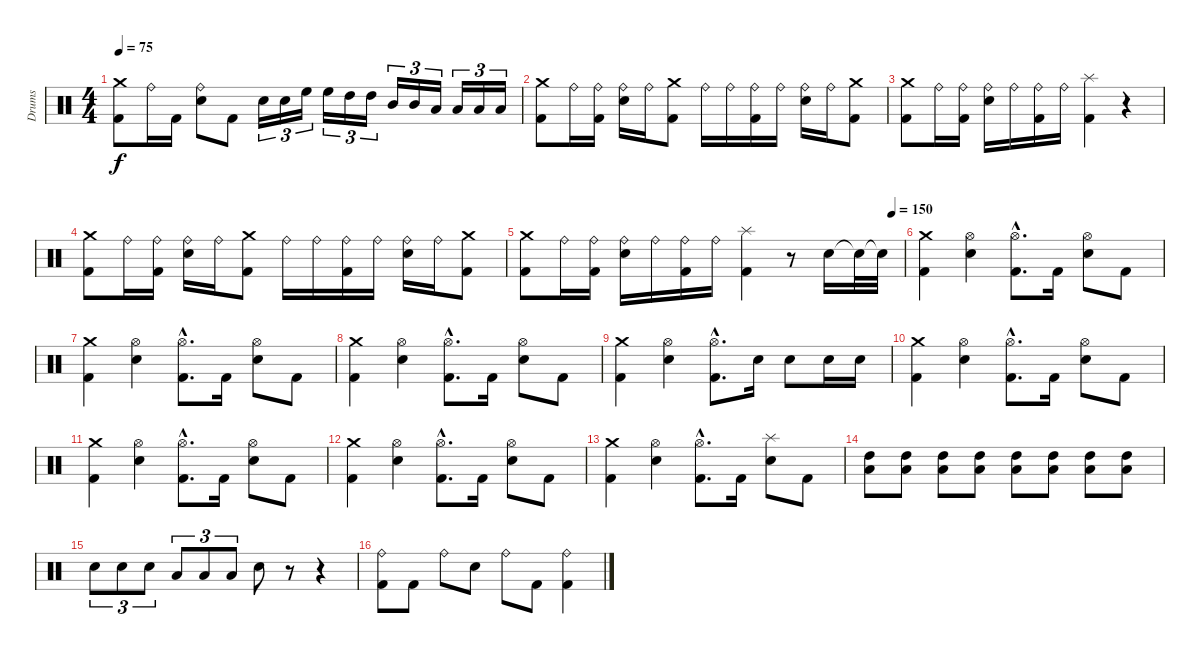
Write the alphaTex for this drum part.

\track ("Drums" "Drums") {instrument percussion}
\staff {score}
\articulation defaults
\ts (4 4)
\tempo 75
\clef neutral
\ks c
("Crash medium (hit)" "Kick (hit) 2").8{dy f} "Ride (bell)".16 "Kick (hit) 2".16 ("Ride (bell)" "Electric Snare (hit)").8 "Kick (hit) 2".8 "Electric Snare (hit)".16{tu (3 2)} "Electric Snare (hit)".16{tu (3 2)} "High Floor Tom (hit)".16{tu (3 2)} "High Floor Tom (hit)".16{tu (3 2)} "High Tom (hit)".16{tu (3 2)} "High Tom (hit)".16{tu (3 2)} "Mid Tom (hit)".16{tu (3 2)} "Mid Tom (hit)".16{tu (3 2)} "Low Tom (hit)".16{tu (3 2)} "Low Tom (hit)".16{tu (3 2)} "Low Floor Tom (hit)".16{tu (3 2)} "Low Floor Tom (hit)".16{tu (3 2)} |
("Crash medium (hit)" "Kick (hit) 2").8 "Ride (bell)".16 ("Ride (bell)" "Kick (hit) 2").16 ("Ride (bell)" "Electric Snare (hit)").16 "Ride (bell)".16 ("Crash medium (hit)" "Kick (hit) 2").8 "Ride (bell)".16 "Ride (bell)".16 ("Ride (bell)" "Kick (hit) 2").16 "Ride (bell)".16 ("Ride (bell)" "Electric Snare (hit)").16 "Ride (bell)".16 ("Crash medium (hit)" "Kick (hit) 2").8 |
("Crash medium (hit)" "Kick (hit) 2").8 "Ride (bell)".16 ("Ride (bell)" "Kick (hit) 2").16 ("Ride (bell)" "Electric Snare (hit)").16 "Ride (bell)".16 ("Ride (bell)" "Kick (hit) 2").16 "Ride (bell)".16 ("Splash (hit)" "Kick (hit) 2").4 r.4 |
("Crash medium (hit)" "Kick (hit) 2").8 "Ride (bell)".16 ("Ride (bell)" "Kick (hit) 2").16 ("Ride (bell)" "Electric Snare (hit)").16 "Ride (bell)".16 ("Crash medium (hit)" "Kick (hit) 2").8 "Ride (bell)".16 "Ride (bell)".16 ("Ride (bell)" "Kick (hit) 2").16 "Ride (bell)".16 ("Ride (bell)" "Electric Snare (hit)").16 "Ride (bell)".16 ("Crash medium (hit)" "Kick (hit) 2").8 |
\tempo (150 0.96875)
("Crash medium (hit)" "Kick (hit) 2").8 "Ride (bell)".16 ("Ride (bell)" "Kick (hit) 2").16 ("Ride (bell)" "Electric Snare (hit)").16 "Ride (bell)".16 ("Ride (bell)" "Kick (hit) 2").16 "Ride (bell)".16 ("Splash (hit)" "Kick (hit) 2").4 r.8 "Electric Snare (hit)".16 "Snare (hit)"{t}.32 "Snare (hit)"{t}.32 |
("Crash medium (hit)" "Kick (hit) 2").4 ("Hi-Hat (open)" "Electric Snare (hit)").4 ("Hi-Hat (open)"{hac} "Kick (hit) 2"{hac}).8{d} "Kick (hit) 2".16 ("Hi-Hat (open)" "Electric Snare (hit)").8 "Kick (hit) 2".8 |
("Crash medium (hit)" "Kick (hit) 2").4 ("Hi-Hat (open)" "Electric Snare (hit)").4 ("Hi-Hat (open)"{hac} "Kick (hit) 2"{hac}).8{d} "Kick (hit) 2".16 ("Hi-Hat (open)" "Electric Snare (hit)").8 "Kick (hit) 2".8 |
("Crash medium (hit)" "Kick (hit) 2").4 ("Hi-Hat (open)" "Electric Snare (hit)").4 ("Hi-Hat (open)"{hac} "Kick (hit) 2"{hac}).8{d} "Kick (hit) 2".16 ("Hi-Hat (open)" "Electric Snare (hit)").8 "Kick (hit) 2".8 |
("Crash medium (hit)" "Kick (hit) 2").4 ("Hi-Hat (open)" "Electric Snare (hit)").4 ("Hi-Hat (open)"{hac} "Kick (hit) 2"{hac}).8{d} "Electric Snare (hit)".16 "Electric Snare (hit)".8 "Electric Snare (hit)".16 "Electric Snare (hit)".16 |
("Crash medium (hit)" "Kick (hit) 2").4 ("Hi-Hat (open)" "Electric Snare (hit)").4 ("Hi-Hat (open)"{hac} "Kick (hit) 2"{hac}).8{d} "Kick (hit) 2".16 ("Hi-Hat (open)" "Electric Snare (hit)").8 "Kick (hit) 2".8 |
("Crash medium (hit)" "Kick (hit) 2").4 ("Hi-Hat (open)" "Electric Snare (hit)").4 ("Hi-Hat (open)"{hac} "Kick (hit) 2"{hac}).8{d} "Kick (hit) 2".16 ("Hi-Hat (open)" "Electric Snare (hit)").8 "Kick (hit) 2".8 |
("Crash medium (hit)" "Kick (hit) 2").4 ("Hi-Hat (open)" "Electric Snare (hit)").4 ("Hi-Hat (open)"{hac} "Kick (hit) 2"{hac}).8{d} "Kick (hit) 2".16 ("Hi-Hat (open)" "Electric Snare (hit)").8 "Kick (hit) 2".8 |
("Crash medium (hit)" "Kick (hit) 2").4 ("Hi-Hat (open)" "Electric Snare (hit)").4 ("Hi-Hat (open)"{hac} "Kick (hit) 2"{hac}).8{d} "Kick (hit) 2".16 ("Splash (hit)" "Electric Snare (hit)").8 "Kick (hit) 2".8 |
("High Tom (hit)" "Low Tom (hit)").8 ("High Tom (hit)" "Low Tom (hit)").8 ("High Tom (hit)" "Low Tom (hit)").8 ("High Tom (hit)" "Low Tom (hit)").8 ("High Tom (hit)" "Low Floor Tom (hit)").8 ("High Tom (hit)" "Low Floor Tom (hit)").8 ("High Tom (hit)" "Low Floor Tom (hit)").8 ("High Tom (hit)" "Low Floor Tom (hit)").8 |
"Electric Snare (hit)".8{tu (3 2)} "Electric Snare (hit)".8{tu (3 2)} "Electric Snare (hit)".8{tu (3 2)} "Low Tom (hit)".8{tu (3 2)} "Low Tom (hit)".8{tu (3 2)} "Low Tom (hit)".8{tu (3 2)} "Electric Snare (hit)".8 r.8 r.4 |
("Ride (bell)" "Kick (hit) 2").8 "Kick (hit) 2".8 "Ride (bell)".8 "Electric Snare (hit)".8 "Ride (bell)".8 "Kick (hit) 2".8 ("Ride (bell)" "Kick (hit) 2").4
